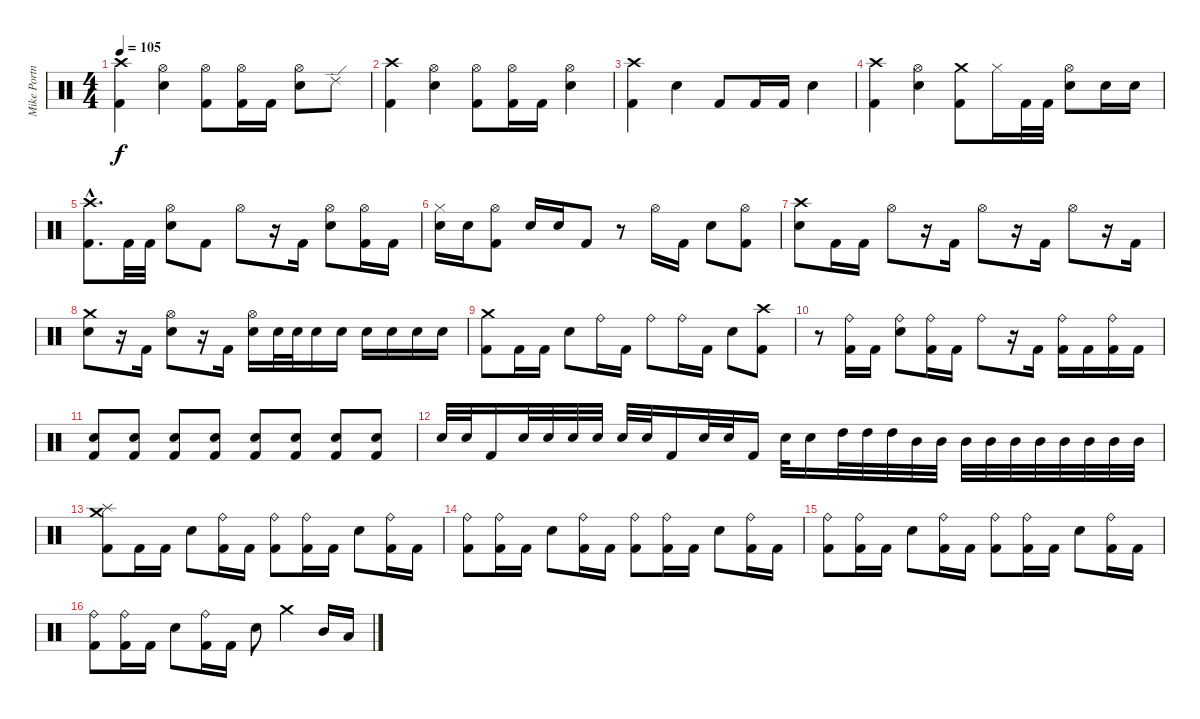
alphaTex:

\track ("Mike Portnoy" "Mike Portn") {instrument percussion}
\staff {score}
\articulation defaults
\ts (4 4)
\tempo 105
\clef neutral
\ks c
("Crash high (hit)" "Kick (hit) 2").4{dy f} ("Hi-Hat (open)" "Electric Snare (hit)").4 ("Hi-Hat (open)" "Kick (hit) 2").8 ("Hi-Hat (open)" "Kick (hit) 2").16 "Kick (hit) 2".16 ("Hi-Hat (open)" "Electric Snare (hit)").8 "Ride (edge) 2".8 |
("Crash high (hit)" "Kick (hit) 2").4 ("Hi-Hat (open)" "Electric Snare (hit)").4 ("Hi-Hat (open)" "Kick (hit) 2").8 ("Hi-Hat (open)" "Kick (hit) 2").16 "Kick (hit) 2".16 ("Hi-Hat (open)" "Electric Snare (hit)").4 |
("Crash high (hit)" "Kick (hit) 2").4 "Electric Snare (hit)".4 "Kick (hit) 2".8 "Kick (hit) 2".16 "Kick (hit) 2".16 "Electric Snare (hit)".4 |
("Crash high (hit)" "Kick (hit) 2").4 ("Hi-Hat (open)" "Electric Snare (hit)").4 ("Crash medium (hit)" "Kick (hit) 2").8 "Hi-Hat (closed)".16 "Kick (hit) 2".32 "Kick (hit) 2".32 ("Hi-Hat (open)" "Electric Snare (hit)").8 "Electric Snare (hit)".16 "Electric Snare (hit)".16 |
("Crash high (hit)"{hac} "Kick (hit) 2"{hac}).8{d} "Kick (hit) 2".32 "Kick (hit) 2".32 ("Hi-Hat (open)" "Electric Snare (hit)").8 "Kick (hit) 2".8 "Hi-Hat (open)".8 r.16 "Kick (hit) 2".16 ("Hi-Hat (open)" "Electric Snare (hit)").8 ("Hi-Hat (open)" "Kick (hit) 2").16 "Kick (hit) 2".16 |
("Hi-Hat (closed)" "Electric Snare (hit)").16 "Electric Snare (hit)".16 ("Hi-Hat (open)" "Kick (hit) 2").8 "Electric Snare (hit)".16 "Electric Snare (hit)".16 "Kick (hit) 2".8 r.8 "Hi-Hat (open)".16 "Kick (hit) 2".16 "Electric Snare (hit)".8 ("Hi-Hat (open)" "Kick (hit) 2").8 |
("Crash high (hit)" "Electric Snare (hit)").8 "Kick (hit) 2".16 "Kick (hit) 2".16 "Hi-Hat (open)".8 r.16 "Kick (hit) 2".16 "Hi-Hat (open)".8 r.16 "Kick (hit) 2".16 "Hi-Hat (open)".8 r.16 "Kick (hit) 2".16 |
("Crash medium (hit)" "Electric Snare (hit)").8 r.16 "Kick (hit) 2".16 ("Hi-Hat (open)" "Electric Snare (hit)").8 r.16 "Kick (hit) 2".16 ("Hi-Hat (open)" "Electric Snare (hit)").16 "Electric Snare (hit)".32 "Electric Snare (hit)".32 "Electric Snare (hit)".16 "Electric Snare (hit)".16 "Electric Snare (hit)".16 "Electric Snare (hit)".16 "Electric Snare (hit)".16 "Electric Snare (hit)".16 |
("Crash medium (hit)" "Kick (hit) 2").8 "Kick (hit) 2".16 "Kick (hit) 2".16 "Electric Snare (hit)".8 "Ride (bell)".16 "Kick (hit) 2".16 "Ride (bell)".8 "Ride (bell)".16 "Kick (hit) 2".16 "Electric Snare (hit)".8 ("Crash high (hit)" "Kick (hit) 2").8 |
r.8 ("Ride (bell)" "Kick (hit) 2").16 "Kick (hit) 2".16 ("Ride (bell)" "Electric Snare (hit)").8 ("Ride (bell)" "Kick (hit) 2").16 "Kick (hit) 2".16 "Ride (bell)".8 r.16 "Kick (hit) 2".16 ("Ride (bell)" "Kick (hit) 2").16 "Kick (hit) 2".16 ("Ride (bell)" "Kick (hit) 2").16 "Kick (hit) 2".16 |
("Electric Snare (hit)" "Kick (hit) 2").8 ("Electric Snare (hit)" "Kick (hit) 2").8 ("Electric Snare (hit)" "Kick (hit) 2").8 ("Electric Snare (hit)" "Kick (hit) 2").8 ("Electric Snare (hit)" "Kick (hit) 2").8 ("Electric Snare (hit)" "Kick (hit) 2").8 ("Electric Snare (hit)" "Kick (hit) 2").8 ("Electric Snare (hit)" "Kick (hit) 2").8 |
"Electric Snare (hit)".32 "Electric Snare (hit)".32 "Kick (hit) 2".16 "Electric Snare (hit)".32 "Electric Snare (hit)".32 "Electric Snare (hit)".32 "Electric Snare (hit)".32 "Electric Snare (hit)".32 "Electric Snare (hit)".32 "Kick (hit) 2".16 "Electric Snare (hit)".32 "Electric Snare (hit)".32 "Kick (hit) 2".16 "Electric Snare (hit)".32 "Electric Snare (hit)".16 "High Tom (hit)".32 "High Tom (hit)".32 "High Tom (hit)".32 "Mid Tom (hit)".32 "Mid Tom (hit)".32 "Mid Tom (hit)".32 "Mid Tom (hit)".32 "Mid Tom (hit)".32 "Mid Tom (hit)".32 "Mid Tom (hit)".32 "Mid Tom (hit)".32 "Mid Tom (hit)".32 "Mid Tom (hit)".32 |
("Crash medium (hit)" "Splash (hit)" "Kick (hit) 2").8 "Kick (hit) 2".16 "Kick (hit) 2".16 "Electric Snare (hit)".8 ("Ride (bell)" "Kick (hit) 2").16 "Kick (hit) 2".16 ("Ride (bell)" "Kick (hit) 2").8 ("Ride (bell)" "Kick (hit) 2").16 "Kick (hit) 2".16 "Electric Snare (hit)".8 ("Ride (bell)" "Kick (hit) 2").16 "Kick (hit) 2".16 |
("Ride (bell)" "Kick (hit) 2").8 ("Ride (bell)" "Kick (hit) 2").16 "Kick (hit) 2".16 "Electric Snare (hit)".8 ("Ride (bell)" "Kick (hit) 2").16 "Kick (hit) 2".16 ("Ride (bell)" "Kick (hit) 2").8 ("Ride (bell)" "Kick (hit) 2").16 "Kick (hit) 2".16 "Electric Snare (hit)".8 ("Ride (bell)" "Kick (hit) 2").16 "Kick (hit) 2".16 |
("Ride (bell)" "Kick (hit) 2").8 ("Ride (bell)" "Kick (hit) 2").16 "Kick (hit) 2".16 "Electric Snare (hit)".8 ("Ride (bell)" "Kick (hit) 2").16 "Kick (hit) 2".16 ("Ride (bell)" "Kick (hit) 2").8 ("Ride (bell)" "Kick (hit) 2").16 "Kick (hit) 2".16 "Electric Snare (hit)".8 ("Ride (bell)" "Kick (hit) 2").16 "Kick (hit) 2".16 |
("Ride (bell)" "Kick (hit) 2").8 ("Ride (bell)" "Kick (hit) 2").16 "Kick (hit) 2".16 "Electric Snare (hit)".8 ("Ride (bell)" "Kick (hit) 2").16 "Kick (hit) 2".16 "Electric Snare (hit)".8 "Crash medium (hit)".4 "Mid Tom (hit)".16 "Low Tom (hit)".16
